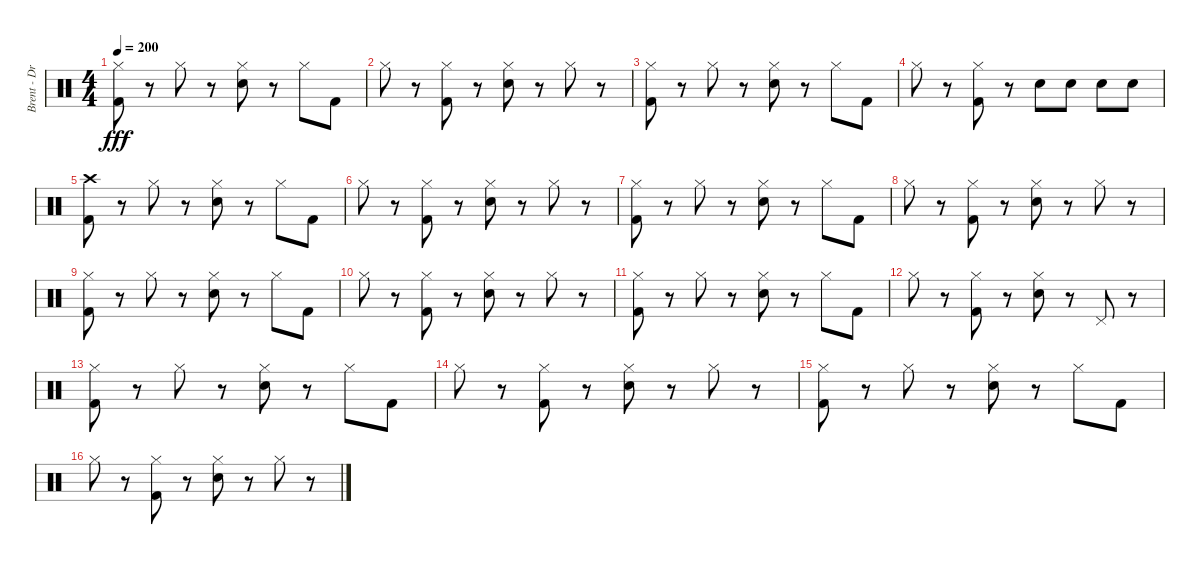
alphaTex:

\track ("Brent - Drums" "Brent - Dr") {instrument percussion}
\staff {score}
\articulation defaults
\ts (4 4)
\tempo 200
\clef neutral
\ks c
("Hi-Hat (closed)" "Kick (hit) 2").8{dy fff} r.8 "Hi-Hat (closed)".8 r.8 ("Hi-Hat (closed)" "Snare (hit) 2").8 r.8 "Hi-Hat (closed)".8 "Kick (hit) 2".8 |
"Hi-Hat (closed)".8 r.8 ("Hi-Hat (closed)" "Kick (hit) 2").8 r.8 ("Hi-Hat (closed)" "Snare (hit) 2").8 r.8 "Hi-Hat (closed)".8 r.8 |
("Hi-Hat (closed)" "Kick (hit) 2").8 r.8 "Hi-Hat (closed)".8 r.8 ("Hi-Hat (closed)" "Snare (hit) 2").8 r.8 "Hi-Hat (closed)".8 "Kick (hit) 2".8 |
"Hi-Hat (closed)".8 r.8 ("Hi-Hat (closed)" "Kick (hit) 2").8 r.8 "Snare (hit) 2".8 "Snare (hit) 2".8 "Snare (hit) 2".8 "Snare (hit) 2".8 |
("Crash high (hit)" "Kick (hit) 2").8 r.8 "Hi-Hat (closed)".8 r.8 ("Hi-Hat (closed)" "Snare (hit) 2").8 r.8 "Hi-Hat (closed)".8 "Kick (hit) 2".8 |
"Hi-Hat (closed)".8 r.8 ("Hi-Hat (closed)" "Kick (hit) 2").8 r.8 ("Hi-Hat (closed)" "Snare (hit) 2").8 r.8 "Hi-Hat (closed)".8 r.8 |
("Hi-Hat (closed)" "Kick (hit) 2").8 r.8 "Hi-Hat (closed)".8 r.8 ("Hi-Hat (closed)" "Snare (hit) 2").8 r.8 "Hi-Hat (closed)".8 "Kick (hit) 2".8 |
"Hi-Hat (closed)".8 r.8 ("Hi-Hat (closed)" "Kick (hit) 2").8 r.8 ("Hi-Hat (closed)" "Snare (hit) 2").8 r.8 "Hi-Hat (closed)".8 r.8 |
("Hi-Hat (closed)" "Kick (hit) 2").8 r.8 "Hi-Hat (closed)".8 r.8 ("Hi-Hat (closed)" "Snare (hit) 2").8 r.8 "Hi-Hat (closed)".8 "Kick (hit) 2".8 |
"Hi-Hat (closed)".8 r.8 ("Hi-Hat (closed)" "Kick (hit) 2").8 r.8 ("Hi-Hat (closed)" "Snare (hit) 2").8 r.8 "Hi-Hat (closed)".8 r.8 |
("Hi-Hat (closed)" "Kick (hit) 2").8 r.8 "Hi-Hat (closed)".8 r.8 ("Hi-Hat (closed)" "Snare (hit) 2").8 r.8 "Hi-Hat (closed)".8 "Kick (hit) 2".8 |
"Hi-Hat (closed)".8 r.8 ("Hi-Hat (closed)" "Kick (hit) 2").8 r.8 ("Hi-Hat (closed)" "Snare (hit) 2").8 r.8 "Pedal Hi-Hat (hit)".8 r.8 |
("Hi-Hat (closed)" "Kick (hit) 2").8 r.8 "Hi-Hat (closed)".8 r.8 ("Hi-Hat (closed)" "Snare (hit) 2").8 r.8 "Hi-Hat (closed)".8 "Kick (hit) 2".8 |
"Hi-Hat (closed)".8 r.8 ("Hi-Hat (closed)" "Kick (hit) 2").8 r.8 ("Hi-Hat (closed)" "Snare (hit) 2").8 r.8 "Hi-Hat (closed)".8 r.8 |
("Hi-Hat (closed)" "Kick (hit) 2").8 r.8 "Hi-Hat (closed)".8 r.8 ("Hi-Hat (closed)" "Snare (hit) 2").8 r.8 "Hi-Hat (closed)".8 "Kick (hit) 2".8 |
"Hi-Hat (closed)".8 r.8 ("Hi-Hat (closed)" "Kick (hit) 2").8 r.8 ("Hi-Hat (closed)" "Snare (hit) 2").8 r.8 "Hi-Hat (closed)".8 r.8
